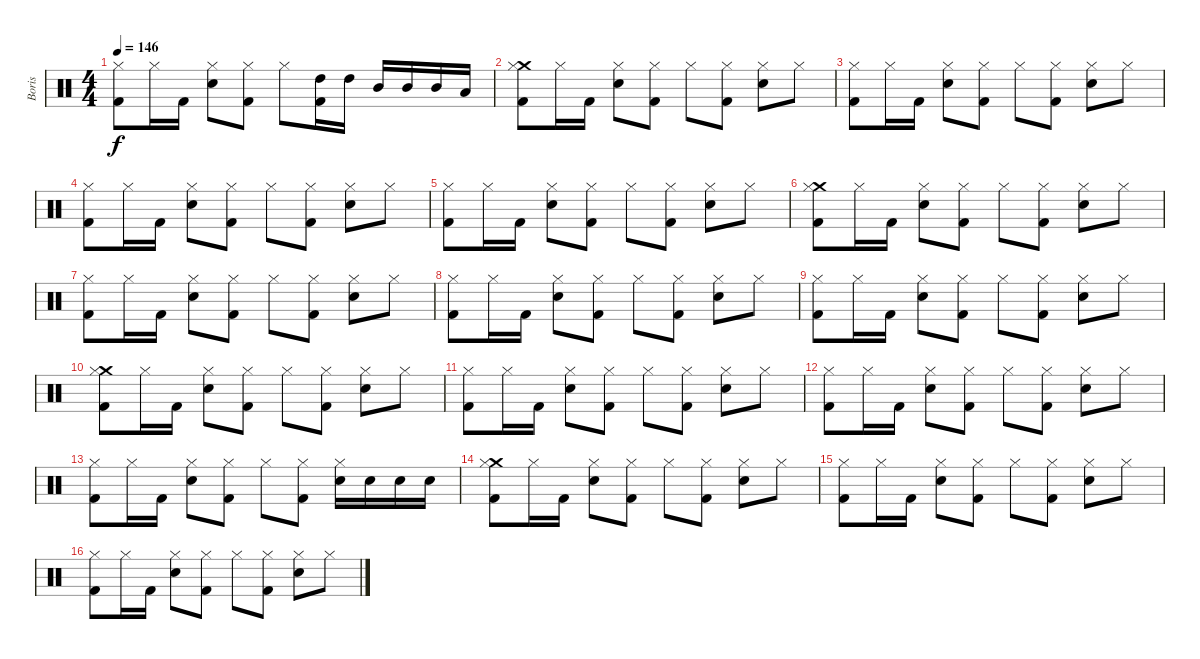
\track ("Boris" "Boris") {instrument percussion}
\staff {score}
\articulation defaults
\ts (4 4)
\tempo 146
\clef neutral
\ks c
("Kick (hit) 2" "Hi-Hat (closed)").8{dy f} "Hi-Hat (closed)".16 "Kick (hit) 2".16 ("Electric Snare (hit)" "Hi-Hat (closed)").8 ("Kick (hit) 2" "Hi-Hat (closed)").8 "Hi-Hat (closed)".8 ("Kick (hit) 2" "High Tom (hit)").16 "High Tom (hit)".16 "Mid Tom (hit)".16 "Mid Tom (hit)".16 "Mid Tom (hit)".16 "Low Tom (hit)".16 |
("Kick (hit) 2" "Crash medium (hit)" "Hi-Hat (closed)").8 "Hi-Hat (closed)".16 "Kick (hit) 2".16 ("Electric Snare (hit)" "Hi-Hat (closed)").8 ("Kick (hit) 2" "Hi-Hat (closed)").8 "Hi-Hat (closed)".8 ("Kick (hit) 2" "Hi-Hat (closed)").8 ("Electric Snare (hit)" "Hi-Hat (closed)").8 "Hi-Hat (closed)".8 |
("Kick (hit) 2" "Hi-Hat (closed)").8 "Hi-Hat (closed)".16 "Kick (hit) 2".16 ("Electric Snare (hit)" "Hi-Hat (closed)").8 ("Kick (hit) 2" "Hi-Hat (closed)").8 "Hi-Hat (closed)".8 ("Kick (hit) 2" "Hi-Hat (closed)").8 ("Electric Snare (hit)" "Hi-Hat (closed)").8 "Hi-Hat (closed)".8 |
("Kick (hit) 2" "Hi-Hat (closed)").8 "Hi-Hat (closed)".16 "Kick (hit) 2".16 ("Electric Snare (hit)" "Hi-Hat (closed)").8 ("Kick (hit) 2" "Hi-Hat (closed)").8 "Hi-Hat (closed)".8 ("Kick (hit) 2" "Hi-Hat (closed)").8 ("Electric Snare (hit)" "Hi-Hat (closed)").8 "Hi-Hat (closed)".8 |
("Kick (hit) 2" "Hi-Hat (closed)").8 "Hi-Hat (closed)".16 "Kick (hit) 2".16 ("Electric Snare (hit)" "Hi-Hat (closed)").8 ("Kick (hit) 2" "Hi-Hat (closed)").8 "Hi-Hat (closed)".8 ("Kick (hit) 2" "Hi-Hat (closed)").8 ("Electric Snare (hit)" "Hi-Hat (closed)").8 "Hi-Hat (closed)".8 |
("Kick (hit) 2" "Crash medium (hit)" "Hi-Hat (closed)").8 "Hi-Hat (closed)".16 "Kick (hit) 2".16 ("Electric Snare (hit)" "Hi-Hat (closed)").8 ("Kick (hit) 2" "Hi-Hat (closed)").8 "Hi-Hat (closed)".8 ("Kick (hit) 2" "Hi-Hat (closed)").8 ("Electric Snare (hit)" "Hi-Hat (closed)").8 "Hi-Hat (closed)".8 |
("Kick (hit) 2" "Hi-Hat (closed)").8 "Hi-Hat (closed)".16 "Kick (hit) 2".16 ("Electric Snare (hit)" "Hi-Hat (closed)").8 ("Kick (hit) 2" "Hi-Hat (closed)").8 "Hi-Hat (closed)".8 ("Kick (hit) 2" "Hi-Hat (closed)").8 ("Electric Snare (hit)" "Hi-Hat (closed)").8 "Hi-Hat (closed)".8 |
("Kick (hit) 2" "Hi-Hat (closed)").8 "Hi-Hat (closed)".16 "Kick (hit) 2".16 ("Electric Snare (hit)" "Hi-Hat (closed)").8 ("Kick (hit) 2" "Hi-Hat (closed)").8 "Hi-Hat (closed)".8 ("Kick (hit) 2" "Hi-Hat (closed)").8 ("Electric Snare (hit)" "Hi-Hat (closed)").8 "Hi-Hat (closed)".8 |
("Kick (hit) 2" "Hi-Hat (closed)").8 "Hi-Hat (closed)".16 "Kick (hit) 2".16 ("Electric Snare (hit)" "Hi-Hat (closed)").8 ("Kick (hit) 2" "Hi-Hat (closed)").8 "Hi-Hat (closed)".8 ("Kick (hit) 2" "Hi-Hat (closed)").8 ("Electric Snare (hit)" "Hi-Hat (closed)").8 "Hi-Hat (closed)".8 |
("Kick (hit) 2" "Crash medium (hit)" "Hi-Hat (closed)").8 "Hi-Hat (closed)".16 "Kick (hit) 2".16 ("Electric Snare (hit)" "Hi-Hat (closed)").8 ("Kick (hit) 2" "Hi-Hat (closed)").8 "Hi-Hat (closed)".8 ("Kick (hit) 2" "Hi-Hat (closed)").8 ("Electric Snare (hit)" "Hi-Hat (closed)").8 "Hi-Hat (closed)".8 |
("Kick (hit) 2" "Hi-Hat (closed)").8 "Hi-Hat (closed)".16 "Kick (hit) 2".16 ("Electric Snare (hit)" "Hi-Hat (closed)").8 ("Kick (hit) 2" "Hi-Hat (closed)").8 "Hi-Hat (closed)".8 ("Kick (hit) 2" "Hi-Hat (closed)").8 ("Electric Snare (hit)" "Hi-Hat (closed)").8 "Hi-Hat (closed)".8 |
("Kick (hit) 2" "Hi-Hat (closed)").8 "Hi-Hat (closed)".16 "Kick (hit) 2".16 ("Electric Snare (hit)" "Hi-Hat (closed)").8 ("Kick (hit) 2" "Hi-Hat (closed)").8 "Hi-Hat (closed)".8 ("Kick (hit) 2" "Hi-Hat (closed)").8 ("Electric Snare (hit)" "Hi-Hat (closed)").8 "Hi-Hat (closed)".8 |
("Kick (hit) 2" "Hi-Hat (closed)").8 "Hi-Hat (closed)".16 "Kick (hit) 2".16 ("Electric Snare (hit)" "Hi-Hat (closed)").8 ("Kick (hit) 2" "Hi-Hat (closed)").8 "Hi-Hat (closed)".8 ("Kick (hit) 2" "Hi-Hat (closed)").8 ("Electric Snare (hit)" "Hi-Hat (closed)").16 "Electric Snare (hit)".16 "Electric Snare (hit)".16 "Electric Snare (hit)".16 |
("Kick (hit) 2" "Crash medium (hit)" "Hi-Hat (closed)").8 "Hi-Hat (closed)".16 "Kick (hit) 2".16 ("Electric Snare (hit)" "Hi-Hat (closed)").8 ("Kick (hit) 2" "Hi-Hat (closed)").8 "Hi-Hat (closed)".8 ("Kick (hit) 2" "Hi-Hat (closed)").8 ("Electric Snare (hit)" "Hi-Hat (closed)").8 "Hi-Hat (closed)".8 |
("Kick (hit) 2" "Hi-Hat (closed)").8 "Hi-Hat (closed)".16 "Kick (hit) 2".16 ("Electric Snare (hit)" "Hi-Hat (closed)").8 ("Kick (hit) 2" "Hi-Hat (closed)").8 "Hi-Hat (closed)".8 ("Kick (hit) 2" "Hi-Hat (closed)").8 ("Electric Snare (hit)" "Hi-Hat (closed)").8 "Hi-Hat (closed)".8 |
("Kick (hit) 2" "Hi-Hat (closed)").8 "Hi-Hat (closed)".16 "Kick (hit) 2".16 ("Electric Snare (hit)" "Hi-Hat (closed)").8 ("Kick (hit) 2" "Hi-Hat (closed)").8 "Hi-Hat (closed)".8 ("Kick (hit) 2" "Hi-Hat (closed)").8 ("Electric Snare (hit)" "Hi-Hat (closed)").8 "Hi-Hat (closed)".8
